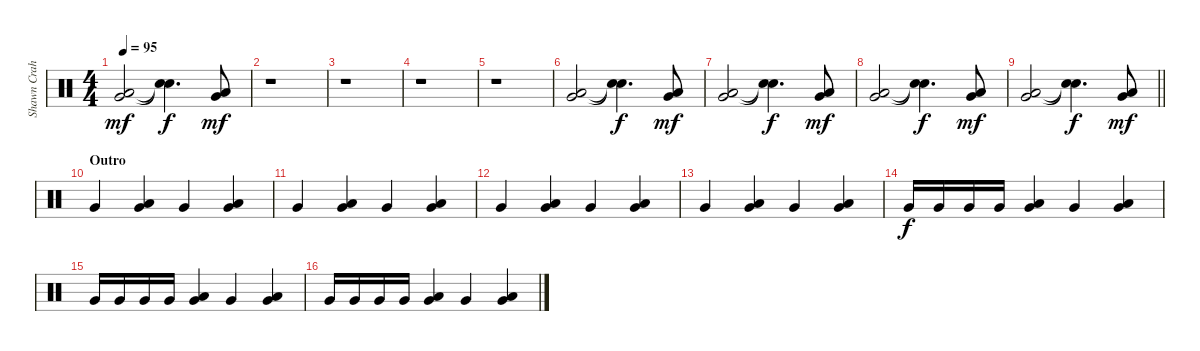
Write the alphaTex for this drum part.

\track ("Shawn Crahan" "Shawn Crah") {instrument percussion}
\staff {score}
\articulation defaults
\ts (4 4)
\tempo 95
\clef neutral
\ks c
("Very Low Tom (hit)" "Low Floor Tom (hit)").2{dy mf} ("Snare (hit)"{t} "Snare (hit)"{t}).4{d dy f} ("Very Low Tom (hit)" "Low Floor Tom (hit)").8{dy mf} |
r.1 |
r.1 |
r.1 |
r.1 |
("Very Low Tom (hit)" "Low Floor Tom (hit)").2 ("Snare (hit)"{t} "Snare (hit)"{t}).4{d dy f} ("Very Low Tom (hit)" "Low Floor Tom (hit)").8{dy mf} |
("Very Low Tom (hit)" "Low Floor Tom (hit)").2 ("Snare (hit)"{t} "Snare (hit)"{t}).4{d dy f} ("Very Low Tom (hit)" "Low Floor Tom (hit)").8{dy mf} |
("Very Low Tom (hit)" "Low Floor Tom (hit)").2 ("Snare (hit)"{t} "Snare (hit)"{t}).4{d dy f} ("Very Low Tom (hit)" "Low Floor Tom (hit)").8{dy mf} |
\barLineRight lightlight
("Very Low Tom (hit)" "Low Floor Tom (hit)").2 ("Snare (hit)"{t} "Snare (hit)"{t}).4{d dy f} ("Very Low Tom (hit)" "Low Floor Tom (hit)").8{dy mf} |
\section ("" "Outro")
"Very Low Tom (hit)".4 ("Very Low Tom (hit)" "Low Floor Tom (hit)").4 "Very Low Tom (hit)".4 ("Very Low Tom (hit)" "Low Floor Tom (hit)").4 |
"Very Low Tom (hit)".4 ("Very Low Tom (hit)" "Low Floor Tom (hit)").4 "Very Low Tom (hit)".4 ("Very Low Tom (hit)" "Low Floor Tom (hit)").4 |
"Very Low Tom (hit)".4 ("Very Low Tom (hit)" "Low Floor Tom (hit)").4 "Very Low Tom (hit)".4 ("Very Low Tom (hit)" "Low Floor Tom (hit)").4 |
"Very Low Tom (hit)".4 ("Very Low Tom (hit)" "Low Floor Tom (hit)").4 "Very Low Tom (hit)".4 ("Very Low Tom (hit)" "Low Floor Tom (hit)").4 |
"Very Low Tom (hit)".16{dy f} "Very Low Tom (hit)".16 "Very Low Tom (hit)".16 "Very Low Tom (hit)".16 ("Very Low Tom (hit)" "Low Floor Tom (hit)").4 "Very Low Tom (hit)".4 ("Very Low Tom (hit)" "Low Floor Tom (hit)").4 |
"Very Low Tom (hit)".16 "Very Low Tom (hit)".16 "Very Low Tom (hit)".16 "Very Low Tom (hit)".16 ("Very Low Tom (hit)" "Low Floor Tom (hit)").4 "Very Low Tom (hit)".4 ("Very Low Tom (hit)" "Low Floor Tom (hit)").4 |
"Very Low Tom (hit)".16 "Very Low Tom (hit)".16 "Very Low Tom (hit)".16 "Very Low Tom (hit)".16 ("Very Low Tom (hit)" "Low Floor Tom (hit)").4 "Very Low Tom (hit)".4 ("Very Low Tom (hit)" "Low Floor Tom (hit)").4
